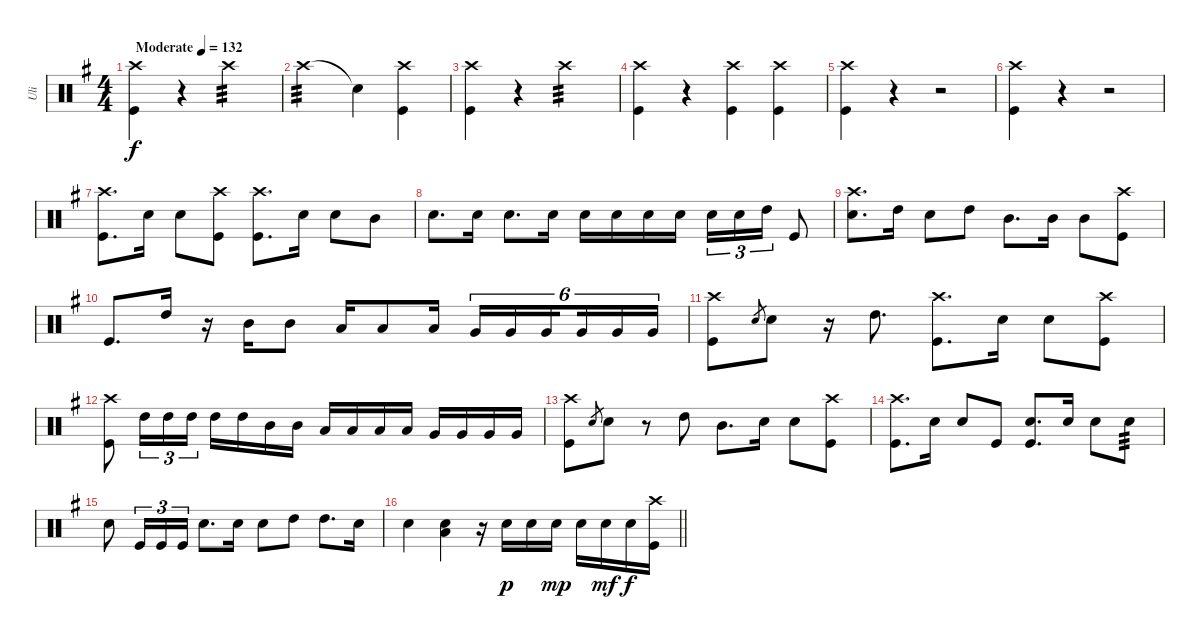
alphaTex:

\track ("Uli" "Uli") {instrument percussion}
\staff {score}
\articulation defaults
\ts (4 4)
\tempo (132 "Moderate")
\clef neutral
\ks eminor
("Crash high (hit)" "Kick (hit)").4{dy f} r.4 "Crash high (hit)".2{tp 3} |
"Crash high (hit)".2{tp 3} "Snare (hit)"{t}.4 ("Crash high (hit)" "Kick (hit)").4 |
("Crash high (hit)" "Kick (hit)").4 r.4 "Crash high (hit)".2{tp 3} |
("Crash high (hit)" "Kick (hit)").4 r.4 ("Crash high (hit)" "Kick (hit)").4 ("Crash high (hit)" "Kick (hit)").4 |
("Crash high (hit)" "Kick (hit)").4 r.4 r.2 |
("Crash high (hit)" "Kick (hit)").4 r.4 r.2 |
("Crash high (hit)" "Kick (hit)").8{d} "Snare (hit) 2".16 "Snare (hit) 2".8 ("Crash high (hit)" "Kick (hit)").8 ("Crash high (hit)" "Kick (hit)").8{d} "Snare (hit) 2".16 "Snare (hit) 2".8 "Mid Tom (hit)".8 |
"Snare (hit) 2".8{d} "Snare (hit) 2".16 "Snare (hit) 2".8{d} "Snare (hit) 2".16 "Snare (hit) 2".16 "Snare (hit) 2".16 "Snare (hit) 2".16 "Snare (hit) 2".16 "Snare (hit) 2".16{tu (3 2)} "Snare (hit) 2".16{tu (3 2)} "High Tom (hit)".16{tu (3 2)} "Kick (hit)".8 |
("Crash high (hit)" "Snare (hit) 2").8{d} "High Tom (hit)".16 "Snare (hit) 2".8 "High Tom (hit)".8 "Mid Tom (hit)".8{d} "Mid Tom (hit)".16 "Mid Tom (hit)".8 ("Crash high (hit)" "Kick (hit)").8 |
"Kick (hit)".8{d} "High Tom (hit)".16 r.16 "Mid Tom (hit)".16 "Mid Tom (hit)".8 "Low Tom (hit)".16 "Low Tom (hit)".8 "Low Tom (hit)".16 "Very Low Tom (hit)".16{tu (6 4)} "Very Low Tom (hit)".16{tu (6 4)} "Very Low Tom (hit)".16{tu (6 4) beam splitsecondary} "Very Low Tom (hit)".16{tu (6 4)} "Very Low Tom (hit)".16{tu (6 4)} "Very Low Tom (hit)".16{tu (6 4)} |
("Crash high (hit)" "Kick (hit)").8 "Snare (hit) 2".8{gr} "Snare (hit) 2".8 r.16 "High Tom (hit)".8{d} ("Crash high (hit)" "Kick (hit)").8{d} "Snare (hit) 2".16 "Snare (hit) 2".8 ("Crash high (hit)" "Kick (hit)").8 |
("Crash high (hit)" "Kick (hit)").8 "High Tom (hit)".16{tu (3 2)} "High Tom (hit)".16{tu (3 2)} "High Tom (hit)".16{tu (3 2)} "High Tom (hit)".16 "High Tom (hit)".16 "Mid Tom (hit)".16 "Mid Tom (hit)".16 "Low Tom (hit)".16 "Low Tom (hit)".16 "Low Tom (hit)".16 "Low Tom (hit)".16 "Very Low Tom (hit)".16 "Very Low Tom (hit)".16 "Very Low Tom (hit)".16 "Very Low Tom (hit)".16 |
("Crash high (hit)" "Kick (hit)").8 "Snare (hit) 2".8{gr} "Snare (hit) 2".8 r.8 "High Tom (hit)".8 "Mid Tom (hit)".8{d} "Snare (hit) 2".16 "Snare (hit) 2".8 ("Crash high (hit)" "Kick (hit)").8 |
("Crash high (hit)" "Kick (hit)").8{d} "Snare (hit) 2".16 "Snare (hit) 2".8 "Kick (hit)".8 ("Snare (hit) 2" "Kick (hit)").8{d} "Snare (hit) 2".16 "Snare (hit) 2".8 "Snare (hit) 2".8{tp 3} |
"Snare (hit) 2".8 "Kick (hit)".16{tu (3 2)} "Kick (hit)".16{tu (3 2)} "Kick (hit)".16{tu (3 2)} "Snare (hit) 2".8{d} "Snare (hit) 2".16 "Snare (hit) 2".8 "High Tom (hit)".8 "High Tom (hit)".8{d} "Snare (hit) 2".16 |
\barLineRight lightlight "Snare (hit) 2".4
("Snare (hit) 2" "Low Tom (hit)").4 r.16 "Snare (hit) 2".16{dy p} "Snare (hit) 2".16 "Snare (hit) 2".16{dy mp} "Snare (hit) 2".16 "Snare (hit) 2".16{dy mf} "Snare (hit) 2".16{dy f} ("Crash high (hit)" "Kick (hit)").16
